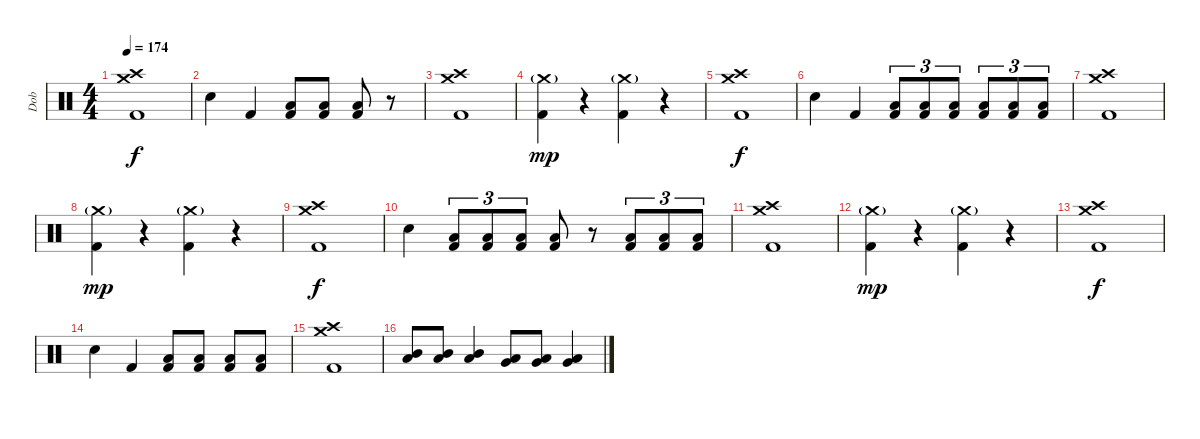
\track ("Dob" "Dob") {instrument percussion}
\staff {score}
\articulation defaults
\ts (4 4)
\tempo 174
\clef neutral
\ks c
("Crash medium (hit)" "Crash high (hit)" "Kick (hit) 2").1{dy f} |
"Electric Snare (hit)".4 "Kick (hit) 2".4 ("Low Tom (hit)" "Kick (hit) 2").8 ("Low Tom (hit)" "Kick (hit) 2").8 ("Low Tom (hit)" "Kick (hit) 2").8 r.8 |
("Crash medium (hit)" "Crash high (hit)" "Kick (hit) 2").1 |
("Crash medium (hit)"{g} "Kick (hit) 2").4{dy mp} r.4 ("Crash medium (hit)"{g} "Kick (hit) 2").4 r.4 |
("Crash medium (hit)" "Crash high (hit)" "Kick (hit) 2").1{dy f} |
"Electric Snare (hit)".4 "Kick (hit) 2".4 ("Low Tom (hit)" "Kick (hit) 2").8{tu (3 2)} ("Low Tom (hit)" "Kick (hit) 2").8{tu (3 2)} ("Low Tom (hit)" "Kick (hit) 2").8{tu (3 2)} ("Low Tom (hit)" "Kick (hit) 2").8{tu (3 2)} ("Low Tom (hit)" "Kick (hit) 2").8{tu (3 2)} ("Low Tom (hit)" "Kick (hit) 2").8{tu (3 2)} |
("Crash medium (hit)" "Crash high (hit)" "Kick (hit) 2").1 |
("Crash medium (hit)"{g} "Kick (hit) 2").4{dy mp} r.4 ("Crash medium (hit)"{g} "Kick (hit) 2").4 r.4 |
("Crash medium (hit)" "Crash high (hit)" "Kick (hit) 2").1{dy f} |
"Electric Snare (hit)".4 ("Low Tom (hit)" "Kick (hit) 2").8{tu (3 2)} ("Low Tom (hit)" "Kick (hit) 2").8{tu (3 2)} ("Low Tom (hit)" "Kick (hit) 2").8{tu (3 2)} ("Low Tom (hit)" "Kick (hit) 2").8 r.8 ("Low Tom (hit)" "Kick (hit) 2").8{tu (3 2)} ("Low Tom (hit)" "Kick (hit) 2").8{tu (3 2)} ("Low Tom (hit)" "Kick (hit) 2").8{tu (3 2)} |
("Crash medium (hit)" "Crash high (hit)" "Kick (hit) 2").1 |
("Crash medium (hit)"{g} "Kick (hit) 2").4{dy mp} r.4 ("Crash medium (hit)"{g} "Kick (hit) 2").4 r.4 |
("Crash medium (hit)" "Crash high (hit)" "Kick (hit) 2").1{dy f} |
"Electric Snare (hit)".4 "Kick (hit) 2".4 ("Low Tom (hit)" "Kick (hit) 2").8 ("Low Tom (hit)" "Kick (hit) 2").8 ("Low Tom (hit)" "Kick (hit) 2").8 ("Low Tom (hit)" "Kick (hit) 2").8 |
("Crash medium (hit)" "Crash high (hit)" "Kick (hit) 2").1 |
("Mid Tom (hit)" "Low Tom (hit)").8 ("Mid Tom (hit)" "Low Tom (hit)").8 ("Mid Tom (hit)" "Low Tom (hit)").4 ("Low Tom (hit)" "Very Low Tom (hit)").8 ("Low Tom (hit)" "Very Low Tom (hit)").8 ("Low Tom (hit)" "Very Low Tom (hit)").4
